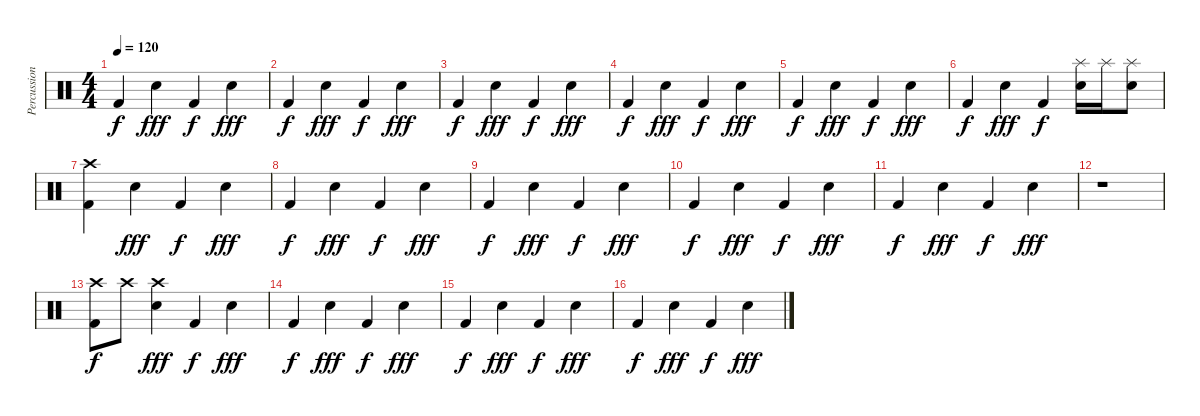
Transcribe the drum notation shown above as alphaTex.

\track ("Percussion" "Percussion") {instrument percussion}
\staff {score}
\articulation defaults
\ts (4 4)
\tempo 120
\clef neutral
\ks c "Kick (hit) 2".4{dy f} "Electric Snare (hit)".4{dy fff} "Kick (hit) 2".4{dy f} "Electric Snare (hit)".4{dy fff}
|
"Kick (hit) 2".4{dy f} "Electric Snare (hit)".4{dy fff} "Kick (hit) 2".4{dy f} "Electric Snare (hit)".4{dy fff} |
"Kick (hit) 2".4{dy f} "Electric Snare (hit)".4{dy fff} "Kick (hit) 2".4{dy f} "Electric Snare (hit)".4{dy fff} |
"Kick (hit) 2".4{dy f} "Electric Snare (hit)".4{dy fff} "Kick (hit) 2".4{dy f} "Electric Snare (hit)".4{dy fff} |
"Kick (hit) 2".4{dy f} "Electric Snare (hit)".4{dy fff} "Kick (hit) 2".4{dy f} "Electric Snare (hit)".4{dy fff} |
"Kick (hit) 2".4{dy f} "Electric Snare (hit)".4{dy fff} "Kick (hit) 2".4{dy f} ("Splash (hit)" "Electric Snare (hit)").16 "Splash (hit)".16 ("Splash (hit)" "Electric Snare (hit)").8 |
("Crash high (hit)" "Kick (hit) 2").4 "Electric Snare (hit)".4{dy fff} "Kick (hit) 2".4{dy f} "Electric Snare (hit)".4{dy fff} |
"Kick (hit) 2".4{dy f} "Electric Snare (hit)".4{dy fff} "Kick (hit) 2".4{dy f} "Electric Snare (hit)".4{dy fff} |
"Kick (hit) 2".4{dy f} "Electric Snare (hit)".4{dy fff} "Kick (hit) 2".4{dy f} "Electric Snare (hit)".4{dy fff} |
"Kick (hit) 2".4{dy f} "Electric Snare (hit)".4{dy fff} "Kick (hit) 2".4{dy f} "Electric Snare (hit)".4{dy fff} |
"Kick (hit) 2".4{dy f} "Electric Snare (hit)".4{dy fff} "Kick (hit) 2".4{dy f} "Electric Snare (hit)".4{dy fff} |
r.1 |
("Crash high (hit)" "Kick (hit) 2").8{dy f} "Crash high (hit)".8 ("Electric Snare (hit)" "Crash high (hit)").4{dy fff} "Kick (hit) 2".4{dy f} "Electric Snare (hit)".4{dy fff} |
"Kick (hit) 2".4{dy f} "Electric Snare (hit)".4{dy fff} "Kick (hit) 2".4{dy f} "Electric Snare (hit)".4{dy fff} |
"Kick (hit) 2".4{dy f} "Electric Snare (hit)".4{dy fff} "Kick (hit) 2".4{dy f} "Electric Snare (hit)".4{dy fff} |
"Kick (hit) 2".4{dy f} "Electric Snare (hit)".4{dy fff} "Kick (hit) 2".4{dy f} "Electric Snare (hit)".4{dy fff}
